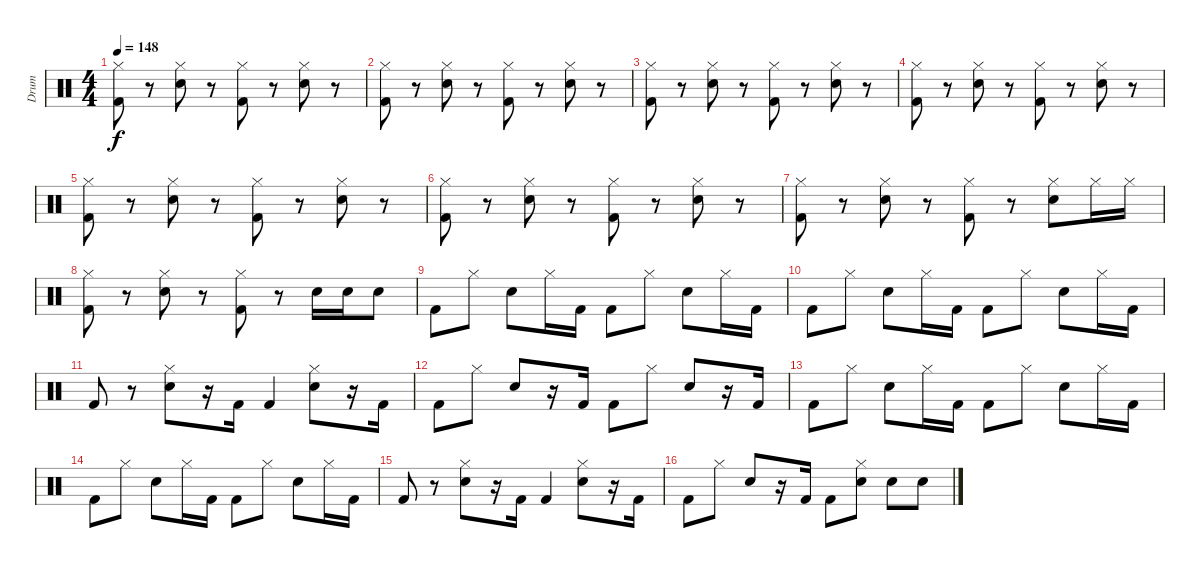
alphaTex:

\track ("Drum" "Drum") {instrument percussion}
\staff {score}
\articulation defaults
\ts (4 4)
\tempo 148
\clef neutral
\ks c
("Hi-Hat (closed)" "Kick (hit) 2").8{dy f} r.8 ("Hi-Hat (closed)" "Electric Snare (hit)").8 r.8 ("Hi-Hat (closed)" "Kick (hit) 2").8 r.8 ("Hi-Hat (closed)" "Electric Snare (hit)").8 r.8 |
("Hi-Hat (closed)" "Kick (hit) 2").8 r.8 ("Hi-Hat (closed)" "Electric Snare (hit)").8 r.8 ("Hi-Hat (closed)" "Kick (hit) 2").8 r.8 ("Hi-Hat (closed)" "Electric Snare (hit)").8 r.8 |
("Hi-Hat (closed)" "Kick (hit) 2").8 r.8 ("Hi-Hat (closed)" "Electric Snare (hit)").8 r.8 ("Hi-Hat (closed)" "Kick (hit) 2").8 r.8 ("Hi-Hat (closed)" "Electric Snare (hit)").8 r.8 |
("Hi-Hat (closed)" "Kick (hit) 2").8 r.8 ("Hi-Hat (closed)" "Electric Snare (hit)").8 r.8 ("Hi-Hat (closed)" "Kick (hit) 2").8 r.8 ("Hi-Hat (closed)" "Electric Snare (hit)").8 r.8 |
("Hi-Hat (closed)" "Kick (hit) 2").8 r.8 ("Hi-Hat (closed)" "Electric Snare (hit)").8 r.8 ("Hi-Hat (closed)" "Kick (hit) 2").8 r.8 ("Hi-Hat (closed)" "Electric Snare (hit)").8 r.8 |
("Hi-Hat (closed)" "Kick (hit) 2").8 r.8 ("Hi-Hat (closed)" "Electric Snare (hit)").8 r.8 ("Hi-Hat (closed)" "Kick (hit) 2").8 r.8 ("Hi-Hat (closed)" "Electric Snare (hit)").8 r.8 |
("Hi-Hat (closed)" "Kick (hit) 2").8 r.8 ("Hi-Hat (closed)" "Electric Snare (hit)").8 r.8 ("Hi-Hat (closed)" "Kick (hit) 2").8 r.8 ("Hi-Hat (closed)" "Electric Snare (hit)").8 "Hi-Hat (closed)".16 "Hi-Hat (closed)".16 |
("Hi-Hat (closed)" "Kick (hit) 2").8 r.8 ("Hi-Hat (closed)" "Electric Snare (hit)").8 r.8 ("Hi-Hat (closed)" "Kick (hit) 2").8 r.8 "Electric Snare (hit)".16 "Electric Snare (hit)".16 "Electric Snare (hit)".8 |
"Kick (hit) 2".8 "Hi-Hat (closed)".8 "Electric Snare (hit)".8 "Hi-Hat (closed)".16 "Kick (hit) 2".16 "Kick (hit) 2".8 "Hi-Hat (closed)".8 "Electric Snare (hit)".8 "Hi-Hat (closed)".16 "Kick (hit) 2".16 |
"Kick (hit) 2".8 "Hi-Hat (closed)".8 "Electric Snare (hit)".8 "Hi-Hat (closed)".16 "Kick (hit) 2".16 "Kick (hit) 2".8 "Hi-Hat (closed)".8 "Electric Snare (hit)".8 "Hi-Hat (closed)".16 "Kick (hit) 2".16 |
"Kick (hit) 2".8 r.8 ("Hi-Hat (closed)" "Electric Snare (hit)").8 r.16 "Kick (hit) 2".16 "Kick (hit) 2".4 ("Hi-Hat (closed)" "Electric Snare (hit)").8 r.16 "Kick (hit) 2".16 |
"Kick (hit) 2".8 "Hi-Hat (closed)".8 "Electric Snare (hit)".8 r.16 "Kick (hit) 2".16 "Kick (hit) 2".8 "Hi-Hat (closed)".8 "Electric Snare (hit)".8 r.16 "Kick (hit) 2".16 |
"Kick (hit) 2".8 "Hi-Hat (closed)".8 "Electric Snare (hit)".8 "Hi-Hat (closed)".16 "Kick (hit) 2".16 "Kick (hit) 2".8 "Hi-Hat (closed)".8 "Electric Snare (hit)".8 "Hi-Hat (closed)".16 "Kick (hit) 2".16 |
"Kick (hit) 2".8 "Hi-Hat (closed)".8 "Electric Snare (hit)".8 "Hi-Hat (closed)".16 "Kick (hit) 2".16 "Kick (hit) 2".8 "Hi-Hat (closed)".8 "Electric Snare (hit)".8 "Hi-Hat (closed)".16 "Kick (hit) 2".16 |
"Kick (hit) 2".8 r.8 ("Hi-Hat (closed)" "Electric Snare (hit)").8 r.16 "Kick (hit) 2".16 "Kick (hit) 2".4 ("Hi-Hat (closed)" "Electric Snare (hit)").8 r.16 "Kick (hit) 2".16 |
"Kick (hit) 2".8 "Hi-Hat (closed)".8 "Electric Snare (hit)".8 r.16 "Kick (hit) 2".16 "Kick (hit) 2".8 ("Hi-Hat (closed)" "Electric Snare (hit)").8 "Electric Snare (hit)".8 "Electric Snare (hit)".8
